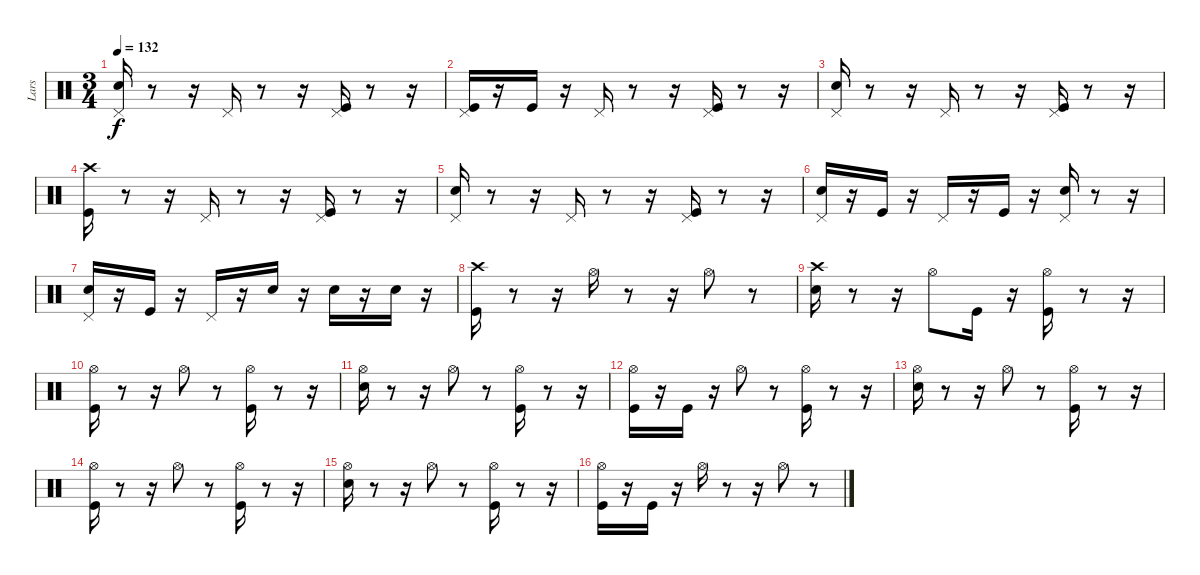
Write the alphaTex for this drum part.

\track ("Lars" "Lars") {instrument percussion}
\staff {score}
\articulation defaults
\ts (3 4)
\tempo 132
\clef neutral
\ks c
("Pedal Hi-Hat (hit)" "Snare (hit) 2").16{dy f} r.8 r.16 "Pedal Hi-Hat (hit)".16 r.8 r.16 ("Pedal Hi-Hat (hit)" "Kick (hit)").16 r.8 r.16 |
("Pedal Hi-Hat (hit)" "Kick (hit)").16 r.16 "Kick (hit)".16 r.16 "Pedal Hi-Hat (hit)".16 r.8 r.16 ("Pedal Hi-Hat (hit)" "Kick (hit)").16 r.8 r.16 |
("Pedal Hi-Hat (hit)" "Snare (hit) 2").16 r.8 r.16 "Pedal Hi-Hat (hit)".16 r.8 r.16 ("Pedal Hi-Hat (hit)" "Kick (hit)").16 r.8 r.16 |
("Kick (hit)" "Crash high (hit)").16 r.8 r.16 "Pedal Hi-Hat (hit)".16 r.8 r.16 ("Pedal Hi-Hat (hit)" "Kick (hit)").16 r.8 r.16 |
("Pedal Hi-Hat (hit)" "Snare (hit) 2").16 r.8 r.16 "Pedal Hi-Hat (hit)".16 r.8 r.16 ("Pedal Hi-Hat (hit)" "Kick (hit)").16 r.8 r.16 |
("Pedal Hi-Hat (hit)" "Snare (hit) 2").16 r.16 "Kick (hit)".16 r.16 "Pedal Hi-Hat (hit)".16 r.16 "Kick (hit)".16 r.16 ("Pedal Hi-Hat (hit)" "Snare (hit) 2").16 r.8 r.16 |
("Pedal Hi-Hat (hit)" "Snare (hit) 2").16 r.16 "Kick (hit)".16 r.16 "Pedal Hi-Hat (hit)".16 r.16 "Snare (hit) 2".16 r.16 "Snare (hit) 2".16 r.16 "Snare (hit) 2".16 r.16 |
("Kick (hit)" "Crash high (hit)").16 r.8 r.16 "Hi-Hat (open)".16 r.8 r.16 "Hi-Hat (open)".8 r.8 |
("Snare (hit) 2" "Crash high (hit)").16 r.8 r.16 "Hi-Hat (open)".8 "Kick (hit)".16 r.16 ("Hi-Hat (open)" "Kick (hit)").16 r.8 r.16 |
("Kick (hit)" "Hi-Hat (open)").16 r.8 r.16 "Hi-Hat (open)".8 r.8 ("Hi-Hat (open)" "Kick (hit)").16 r.8 r.16 |
("Hi-Hat (open)" "Snare (hit) 2").16 r.8 r.16 "Hi-Hat (open)".8 r.8 ("Hi-Hat (open)" "Kick (hit)").16 r.8 r.16 |
("Hi-Hat (open)" "Kick (hit)").16 r.16 "Kick (hit)".16 r.16 "Hi-Hat (open)".8 r.8 ("Kick (hit)" "Hi-Hat (open)").16 r.8 r.16 |
("Hi-Hat (open)" "Snare (hit) 2").16 r.8 r.16 "Hi-Hat (open)".8 r.8 ("Hi-Hat (open)" "Kick (hit)").16 r.8 r.16 |
("Hi-Hat (open)" "Kick (hit)").16 r.8 r.16 "Hi-Hat (open)".8 r.8 ("Kick (hit)" "Hi-Hat (open)").16 r.8 r.16 |
("Hi-Hat (open)" "Snare (hit) 2").16 r.8 r.16 "Hi-Hat (open)".8 r.8 ("Hi-Hat (open)" "Kick (hit)").16 r.8 r.16 |
("Hi-Hat (open)" "Kick (hit)").16 r.16 "Kick (hit)".16 r.16 "Hi-Hat (open)".16 r.8 r.16 "Hi-Hat (open)".8 r.8
